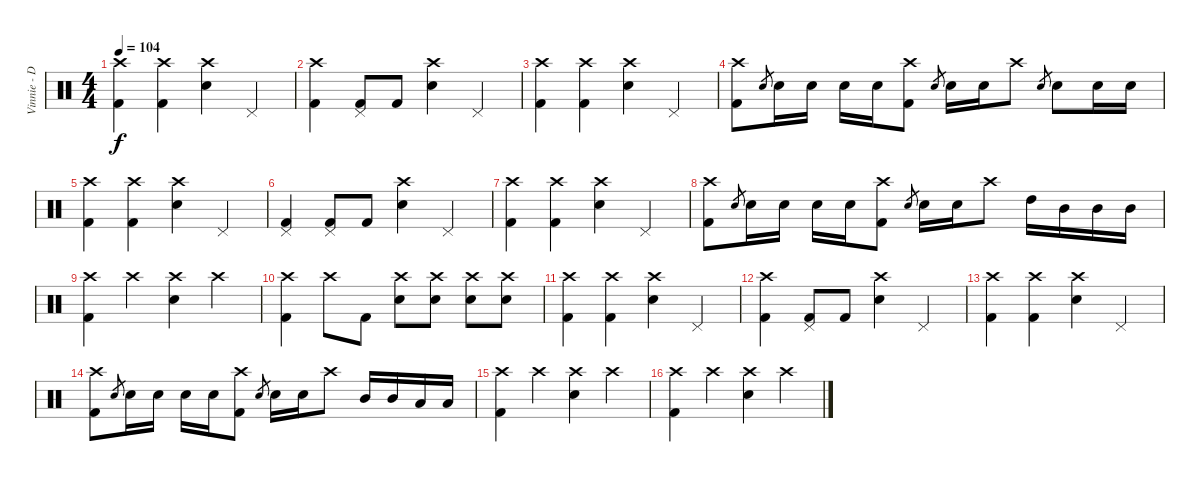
\track ("Vinnie - Drums" "Vinnie - D") {instrument percussion}
\staff {score}
\articulation defaults
\ts (4 4)
\tempo 104
\clef neutral
\ks c
("Crash high (hit)" "Kick (hit) 2").4{dy f} ("Crash high (hit)" "Kick (hit) 2").4 ("Crash high (hit)" "Electric Snare (hit)").4 "Pedal Hi-Hat (hit)".4 |
("Crash high (hit)" "Kick (hit) 2").4 ("Pedal Hi-Hat (hit)" "Kick (hit) 2").8 "Kick (hit) 2".8 ("Crash high (hit)" "Electric Snare (hit)").4 "Pedal Hi-Hat (hit)".4 |
("Crash high (hit)" "Kick (hit) 2").4 ("Crash high (hit)" "Kick (hit) 2").4 ("Crash high (hit)" "Electric Snare (hit)").4 "Pedal Hi-Hat (hit)".4 |
("Crash high (hit)" "Kick (hit) 2").8 "Electric Snare (hit)".8{gr} "Electric Snare (hit)".16 "Electric Snare (hit)".16 "Electric Snare (hit)".16 "Electric Snare (hit)".16 ("Crash high (hit)" "Kick (hit) 2").8 "Electric Snare (hit)".8{gr} "Electric Snare (hit)".16 "Electric Snare (hit)".16 "Crash high (hit)".8 "Electric Snare (hit)".8{gr} "Electric Snare (hit)".8 "Electric Snare (hit)".16 "Electric Snare (hit)".16 |
("Crash high (hit)" "Kick (hit) 2").4 ("Crash high (hit)" "Kick (hit) 2").4 ("Crash high (hit)" "Electric Snare (hit)").4 "Pedal Hi-Hat (hit)".4 |
("Pedal Hi-Hat (hit)" "Kick (hit) 2").4 ("Pedal Hi-Hat (hit)" "Kick (hit) 2").8 "Kick (hit) 2".8 ("Crash high (hit)" "Electric Snare (hit)").4 "Pedal Hi-Hat (hit)".4 |
("Crash high (hit)" "Kick (hit) 2").4 ("Crash high (hit)" "Kick (hit) 2").4 ("Crash high (hit)" "Electric Snare (hit)").4 "Pedal Hi-Hat (hit)".4 |
("Crash high (hit)" "Kick (hit) 2").8 "Electric Snare (hit)".8{gr} "Electric Snare (hit)".16 "Electric Snare (hit)".16 "Electric Snare (hit)".16 "Electric Snare (hit)".16 ("Crash high (hit)" "Kick (hit) 2").8 "Electric Snare (hit)".8{gr} "Electric Snare (hit)".16 "Electric Snare (hit)".16 "Crash high (hit)".8 "High Tom (hit)".16 "Mid Tom (hit)".16 "Mid Tom (hit)".16 "Mid Tom (hit)".16 |
("Crash high (hit)" "Kick (hit) 2").4 "Crash high (hit)".4 ("Crash high (hit)" "Electric Snare (hit)").4 "Crash high (hit)".4 |
("Crash high (hit)" "Kick (hit) 2").4 "Crash high (hit)".8 "Kick (hit) 2".8 ("Crash high (hit)" "Electric Snare (hit)").8 ("Crash high (hit)" "Electric Snare (hit)").8 ("Crash high (hit)" "Electric Snare (hit)").8 ("Crash high (hit)" "Electric Snare (hit)").8 |
("Crash high (hit)" "Kick (hit) 2").4 ("Crash high (hit)" "Kick (hit) 2").4 ("Crash high (hit)" "Electric Snare (hit)").4 "Pedal Hi-Hat (hit)".4 |
("Crash high (hit)" "Kick (hit) 2").4 ("Pedal Hi-Hat (hit)" "Kick (hit) 2").8 "Kick (hit) 2".8 ("Crash high (hit)" "Electric Snare (hit)").4 "Pedal Hi-Hat (hit)".4 |
("Crash high (hit)" "Kick (hit) 2").4 ("Crash high (hit)" "Kick (hit) 2").4 ("Crash high (hit)" "Electric Snare (hit)").4 "Pedal Hi-Hat (hit)".4 |
("Crash high (hit)" "Kick (hit) 2").8 "Electric Snare (hit)".8{gr} "Electric Snare (hit)".16 "Electric Snare (hit)".16 "Electric Snare (hit)".16 "Electric Snare (hit)".16 ("Crash high (hit)" "Kick (hit) 2").8 "Electric Snare (hit)".8{gr} "Electric Snare (hit)".16 "Electric Snare (hit)".16 "Crash high (hit)".8 "Mid Tom (hit)".16 "Mid Tom (hit)".16 "Low Tom (hit)".16 "Low Tom (hit)".16 |
("Crash high (hit)" "Kick (hit) 2").4 "Crash high (hit)".4 ("Crash high (hit)" "Electric Snare (hit)").4 "Crash high (hit)".4 |
("Crash high (hit)" "Kick (hit) 2").4 "Crash high (hit)".4 ("Crash high (hit)" "Electric Snare (hit)").4 "Crash high (hit)".4
